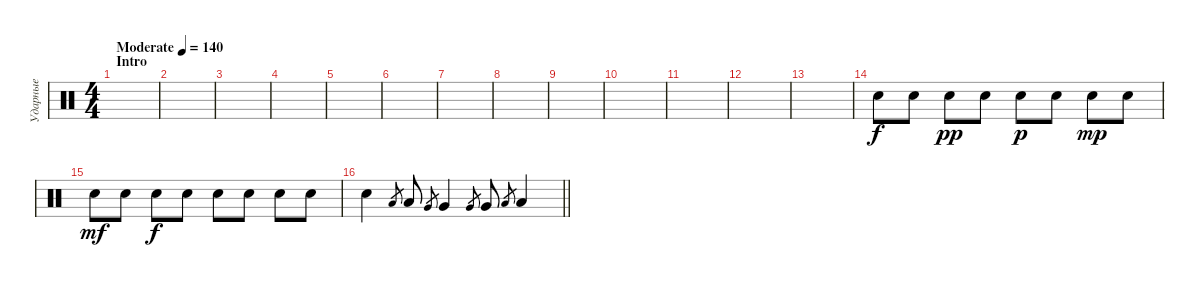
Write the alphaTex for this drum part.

\track ("Ударные" "Ударные") {instrument percussion}
\staff {score}
\articulation defaults
\ts (4 4)
\section ("" "Intro")
\tempo (140 "Moderate")
\clef neutral
\ks c
|
|
|
|
|
|
|
|
|
|
|
|
|
"Snare (hit) 2".8 "Snare (hit) 2".8 "Snare (hit) 2".8{dy pp} "Snare (hit) 2".8 "Snare (hit) 2".8{dy p} "Snare (hit) 2".8 "Snare (hit) 2".8{dy mp} "Snare (hit) 2".8 |
"Snare (hit) 2".8{dy mf} "Snare (hit) 2".8 "Snare (hit) 2".8{dy f} "Snare (hit) 2".8 "Snare (hit) 2".8 "Snare (hit) 2".8 "Snare (hit) 2".8 "Snare (hit) 2".8 |
\barLineRight lightlight "Snare (hit) 2".4 "Low Tom (hit)".8{gr} "Low Tom (hit)".8 "Very Low Tom (hit)".8{gr} "Very Low Tom (hit)".4 "Very Low Tom (hit)".8{gr} "Very Low Tom (hit)".8 "Low Floor Tom (hit)".8{gr} "Low Floor Tom (hit)".4
